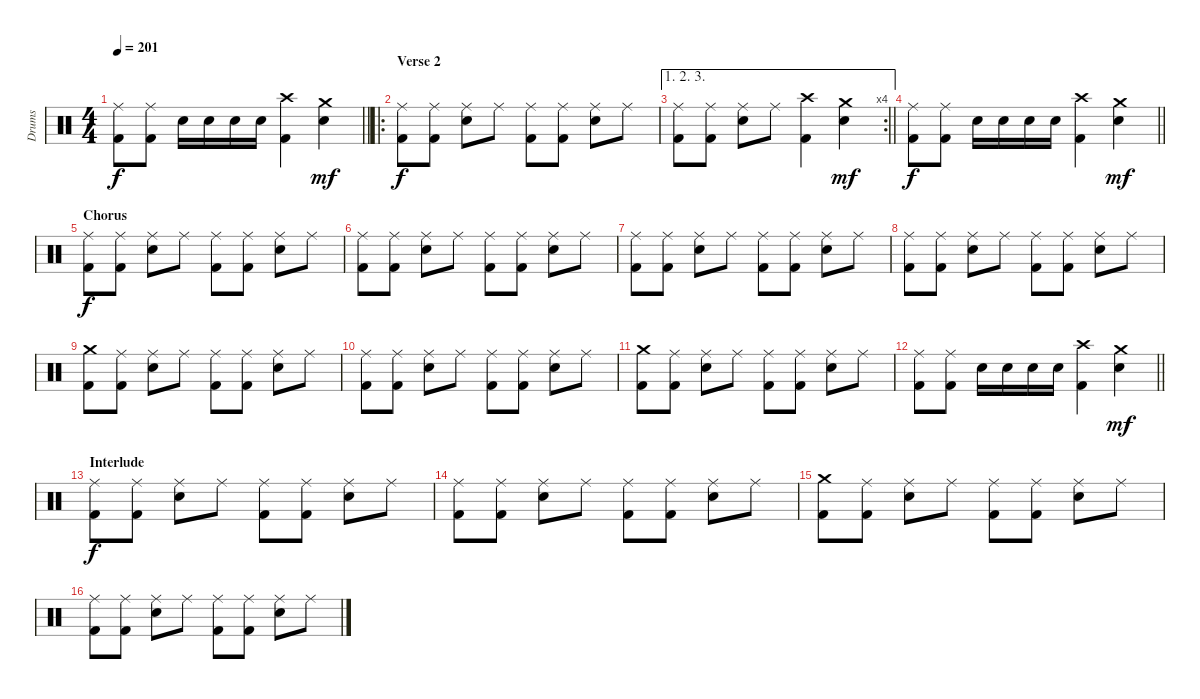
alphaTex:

\track ("Drums" "Drums") {instrument percussion}
\staff {score}
\articulation defaults
\ts (4 4)
\tempo 201
\clef neutral
\barLineRight lightlight
\ks c
("Ride (middle)" "Kick (hit) 2").8{dy f} ("Ride (middle)" "Kick (hit) 2").8 "Electric Snare (hit)".16 "Electric Snare (hit)".16 "Electric Snare (hit)".16 "Electric Snare (hit)".16 ("Crash high (hit)" "Kick (hit) 2").4 ("Crash medium (hit)" "Electric Snare (hit)").4{dy mf} |
\ro
\section ("" "Verse 2")
("Ride (middle)" "Kick (hit) 2").8{dy f} ("Ride (middle)" "Kick (hit) 2").8 ("Ride (middle)" "Electric Snare (hit)").8 "Ride (middle)".8 ("Ride (middle)" "Kick (hit) 2").8 ("Ride (middle)" "Kick (hit) 2").8 ("Ride (middle)" "Electric Snare (hit)").8 "Ride (middle)".8 |
\ae (1 2 3)
\rc 4
\barLineRight lightlight
("Ride (middle)" "Kick (hit) 2").8 ("Ride (middle)" "Kick (hit) 2").8 ("Ride (middle)" "Electric Snare (hit)").8 "Ride (middle)".8 ("Crash high (hit)" "Kick (hit) 2").4 ("Crash medium (hit)" "Electric Snare (hit)").4{dy mf} |
\barLineRight lightlight
("Ride (middle)" "Kick (hit) 2").8{dy f} ("Ride (middle)" "Kick (hit) 2").8 "Electric Snare (hit)".16 "Electric Snare (hit)".16 "Electric Snare (hit)".16 "Electric Snare (hit)".16 ("Crash high (hit)" "Kick (hit) 2").4 ("Crash medium (hit)" "Electric Snare (hit)").4{dy mf} |
\section ("" "Chorus")
("Ride (middle)" "Kick (hit) 2").8{dy f} ("Ride (middle)" "Kick (hit) 2").8 ("Ride (middle)" "Electric Snare (hit)").8 "Ride (middle)".8 ("Ride (middle)" "Kick (hit) 2").8 ("Ride (middle)" "Kick (hit) 2").8 ("Ride (middle)" "Electric Snare (hit)").8 "Ride (middle)".8 |
("Ride (middle)" "Kick (hit) 2").8 ("Ride (middle)" "Kick (hit) 2").8 ("Ride (middle)" "Electric Snare (hit)").8 "Ride (middle)".8 ("Ride (middle)" "Kick (hit) 2").8 ("Ride (middle)" "Kick (hit) 2").8 ("Ride (middle)" "Electric Snare (hit)").8 "Ride (middle)".8 |
("Ride (middle)" "Kick (hit) 2").8 ("Ride (middle)" "Kick (hit) 2").8 ("Ride (middle)" "Electric Snare (hit)").8 "Ride (middle)".8 ("Ride (middle)" "Kick (hit) 2").8 ("Ride (middle)" "Kick (hit) 2").8 ("Ride (middle)" "Electric Snare (hit)").8 "Ride (middle)".8 |
("Ride (middle)" "Kick (hit) 2").8 ("Ride (middle)" "Kick (hit) 2").8 ("Ride (middle)" "Electric Snare (hit)").8 "Ride (middle)".8 ("Ride (middle)" "Kick (hit) 2").8 ("Ride (middle)" "Kick (hit) 2").8 ("Ride (middle)" "Electric Snare (hit)").8 "Ride (middle)".8 |
("Crash medium (hit)" "Kick (hit) 2").8 ("Ride (middle)" "Kick (hit) 2").8 ("Ride (middle)" "Electric Snare (hit)").8 "Ride (middle)".8 ("Ride (middle)" "Kick (hit) 2").8 ("Ride (middle)" "Kick (hit) 2").8 ("Ride (middle)" "Electric Snare (hit)").8 "Ride (middle)".8 |
("Ride (middle)" "Kick (hit) 2").8 ("Ride (middle)" "Kick (hit) 2").8 ("Ride (middle)" "Electric Snare (hit)").8 "Ride (middle)".8 ("Ride (middle)" "Kick (hit) 2").8 ("Ride (middle)" "Kick (hit) 2").8 ("Ride (middle)" "Electric Snare (hit)").8 "Ride (middle)".8 |
("Crash medium (hit)" "Kick (hit) 2").8 ("Ride (middle)" "Kick (hit) 2").8 ("Ride (middle)" "Electric Snare (hit)").8 "Ride (middle)".8 ("Ride (middle)" "Kick (hit) 2").8 ("Ride (middle)" "Kick (hit) 2").8 ("Ride (middle)" "Electric Snare (hit)").8 "Ride (middle)".8 |
\barLineRight lightlight
("Ride (middle)" "Kick (hit) 2").8 ("Ride (middle)" "Kick (hit) 2").8 "Electric Snare (hit)".16 "Electric Snare (hit)".16 "Electric Snare (hit)".16 "Electric Snare (hit)".16 ("Crash high (hit)" "Kick (hit) 2").4 ("Crash medium (hit)" "Electric Snare (hit)").4{dy mf} |
\section ("" "Interlude")
("Ride (middle)" "Kick (hit) 2").8{dy f} ("Ride (middle)" "Kick (hit) 2").8 ("Ride (middle)" "Electric Snare (hit)").8 "Ride (middle)".8 ("Ride (middle)" "Kick (hit) 2").8 ("Ride (middle)" "Kick (hit) 2").8 ("Ride (middle)" "Electric Snare (hit)").8 "Ride (middle)".8 |
("Ride (middle)" "Kick (hit) 2").8 ("Ride (middle)" "Kick (hit) 2").8 ("Ride (middle)" "Electric Snare (hit)").8 "Ride (middle)".8 ("Ride (middle)" "Kick (hit) 2").8 ("Ride (middle)" "Kick (hit) 2").8 ("Ride (middle)" "Electric Snare (hit)").8 "Ride (middle)".8 |
("Crash medium (hit)" "Kick (hit) 2").8 ("Ride (middle)" "Kick (hit) 2").8 ("Ride (middle)" "Electric Snare (hit)").8 "Ride (middle)".8 ("Ride (middle)" "Kick (hit) 2").8 ("Ride (middle)" "Kick (hit) 2").8 ("Ride (middle)" "Electric Snare (hit)").8 "Ride (middle)".8 |
("Ride (middle)" "Kick (hit) 2").8 ("Ride (middle)" "Kick (hit) 2").8 ("Ride (middle)" "Electric Snare (hit)").8 "Ride (middle)".8 ("Ride (middle)" "Kick (hit) 2").8 ("Ride (middle)" "Kick (hit) 2").8 ("Ride (middle)" "Electric Snare (hit)").8 "Ride (middle)".8
